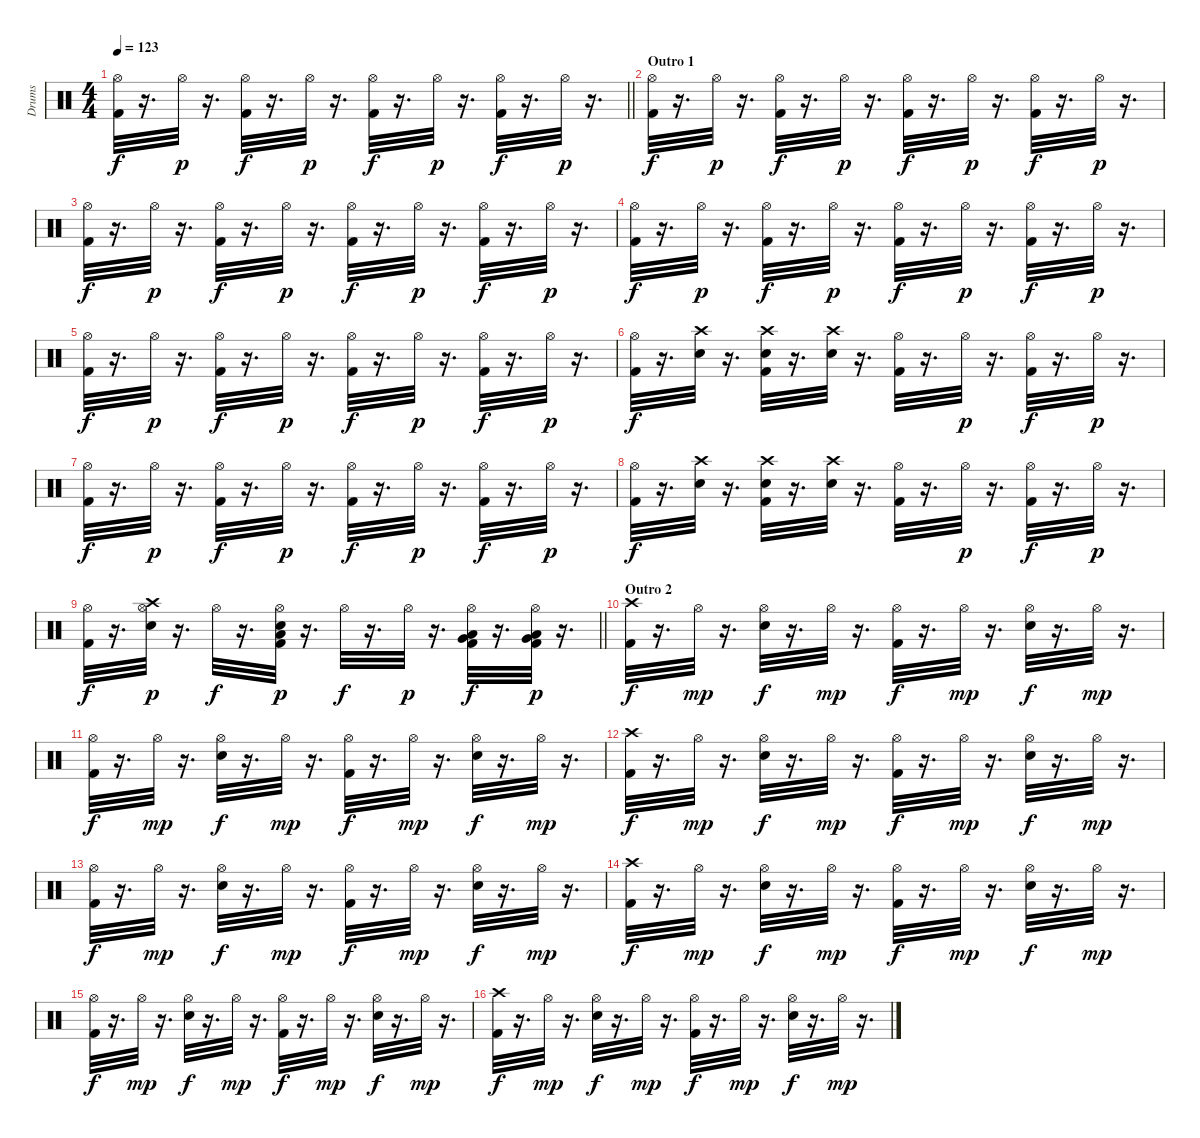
\track ("Drums" "Drums") {instrument percussion}
\staff {score}
\articulation defaults
\ts (4 4)
\tempo 123
\clef neutral
\barLineRight lightlight
\ks c
("Hi-Hat (open)" "Kick (hit) 2").32{dy f} r.16{d} "Hi-Hat (open)".32{dy p} r.16{d} ("Hi-Hat (open)" "Kick (hit) 2").32{dy f} r.16{d} "Hi-Hat (open)".32{dy p} r.16{d} ("Hi-Hat (open)" "Kick (hit) 2").32{dy f} r.16{d} "Hi-Hat (open)".32{dy p} r.16{d} ("Hi-Hat (open)" "Kick (hit) 2").32{dy f} r.16{d} "Hi-Hat (open)".32{dy p} r.16{d} |
\section ("" "Outro 1")
("Hi-Hat (open)" "Kick (hit) 2").32{dy f} r.16{d} "Hi-Hat (open)".32{dy p} r.16{d} ("Hi-Hat (open)" "Kick (hit) 2").32{dy f} r.16{d} "Hi-Hat (open)".32{dy p} r.16{d} ("Hi-Hat (open)" "Kick (hit) 2").32{dy f} r.16{d} "Hi-Hat (open)".32{dy p} r.16{d} ("Hi-Hat (open)" "Kick (hit) 2").32{dy f} r.16{d} "Hi-Hat (open)".32{dy p} r.16{d} |
("Hi-Hat (open)" "Kick (hit) 2").32{dy f} r.16{d} "Hi-Hat (open)".32{dy p} r.16{d} ("Hi-Hat (open)" "Kick (hit) 2").32{dy f} r.16{d} "Hi-Hat (open)".32{dy p} r.16{d} ("Hi-Hat (open)" "Kick (hit) 2").32{dy f} r.16{d} "Hi-Hat (open)".32{dy p} r.16{d} ("Hi-Hat (open)" "Kick (hit) 2").32{dy f} r.16{d} "Hi-Hat (open)".32{dy p} r.16{d} |
("Hi-Hat (open)" "Kick (hit) 2").32{dy f} r.16{d} "Hi-Hat (open)".32{dy p} r.16{d} ("Hi-Hat (open)" "Kick (hit) 2").32{dy f} r.16{d} "Hi-Hat (open)".32{dy p} r.16{d} ("Hi-Hat (open)" "Kick (hit) 2").32{dy f} r.16{d} "Hi-Hat (open)".32{dy p} r.16{d} ("Hi-Hat (open)" "Kick (hit) 2").32{dy f} r.16{d} "Hi-Hat (open)".32{dy p} r.16{d} |
("Hi-Hat (open)" "Kick (hit) 2").32{dy f} r.16{d} "Hi-Hat (open)".32{dy p} r.16{d} ("Hi-Hat (open)" "Kick (hit) 2").32{dy f} r.16{d} "Hi-Hat (open)".32{dy p} r.16{d} ("Hi-Hat (open)" "Kick (hit) 2").32{dy f} r.16{d} "Hi-Hat (open)".32{dy p} r.16{d} ("Hi-Hat (open)" "Kick (hit) 2").32{dy f} r.16{d} "Hi-Hat (open)".32{dy p} r.16{d} |
("Hi-Hat (open)" "Kick (hit) 2").32{dy f} r.16{d} ("Crash high (hit)" "Electric Snare (hit)").32 r.16{d} ("Crash high (hit)" "Electric Snare (hit)" "Kick (hit) 2").32 r.16{d} ("Crash high (hit)" "Electric Snare (hit)").32 r.16{d} ("Hi-Hat (open)" "Kick (hit) 2").32 r.16{d} "Hi-Hat (open)".32{dy p} r.16{d} ("Hi-Hat (open)" "Kick (hit) 2").32{dy f} r.16{d} "Hi-Hat (open)".32{dy p} r.16{d} |
("Hi-Hat (open)" "Kick (hit) 2").32{dy f} r.16{d} "Hi-Hat (open)".32{dy p} r.16{d} ("Hi-Hat (open)" "Kick (hit) 2").32{dy f} r.16{d} "Hi-Hat (open)".32{dy p} r.16{d} ("Hi-Hat (open)" "Kick (hit) 2").32{dy f} r.16{d} "Hi-Hat (open)".32{dy p} r.16{d} ("Hi-Hat (open)" "Kick (hit) 2").32{dy f} r.16{d} "Hi-Hat (open)".32{dy p} r.16{d} |
("Hi-Hat (open)" "Kick (hit) 2").32{dy f} r.16{d} ("Crash high (hit)" "Electric Snare (hit)").32 r.16{d} ("Crash high (hit)" "Electric Snare (hit)" "Kick (hit) 2").32 r.16{d} ("Crash high (hit)" "Electric Snare (hit)").32 r.16{d} ("Hi-Hat (open)" "Kick (hit) 2").32 r.16{d} "Hi-Hat (open)".32{dy p} r.16{d} ("Hi-Hat (open)" "Kick (hit) 2").32{dy f} r.16{d} "Hi-Hat (open)".32{dy p} r.16{d} |
\barLineRight lightlight
("Hi-Hat (open)" "Kick (hit) 2").32{dy f} r.16{d} ("Crash high (hit)" "Electric Snare (hit)" "Hi-Hat (open)").32{dy p} r.16{d} "Hi-Hat (open)".32{dy f} r.16{d} ("Low Floor Tom (hit)" "Electric Snare (hit)" "Hi-Hat (open)" "Kick (hit) 2").32{dy p} r.16{d} "Hi-Hat (open)".32{dy f} r.16{d} "Hi-Hat (open)".32{dy p} r.16{d} ("Very Low Tom (hit)" "Low Floor Tom (hit)" "Hi-Hat (open)" "Kick (hit) 2").32{dy f} r.16{d} ("Very Low Tom (hit)" "Low Floor Tom (hit)" "Hi-Hat (open)" "Kick (hit) 2").32{dy p} r.16{d} |
\section ("" "Outro 2")
("Crash high (hit)" "Kick (hit) 2").32{dy f} r.16{d} "Hi-Hat (open)".32{dy mp} r.16{d} ("Hi-Hat (open)" "Electric Snare (hit)").32{dy f} r.16{d} "Hi-Hat (open)".32{dy mp} r.16{d} ("Kick (hit) 2" "Hi-Hat (open)").32{dy f} r.16{d} "Hi-Hat (open)".32{dy mp} r.16{d} ("Hi-Hat (open)" "Electric Snare (hit)").32{dy f} r.16{d} "Hi-Hat (open)".32{dy mp} r.16{d} |
("Hi-Hat (open)" "Kick (hit) 2").32{dy f} r.16{d} "Hi-Hat (open)".32{dy mp} r.16{d} ("Hi-Hat (open)" "Electric Snare (hit)").32{dy f} r.16{d} "Hi-Hat (open)".32{dy mp} r.16{d} ("Hi-Hat (open)" "Kick (hit) 2").32{dy f} r.16{d} "Hi-Hat (open)".32{dy mp} r.16{d} ("Hi-Hat (open)" "Electric Snare (hit)").32{dy f} r.16{d} "Hi-Hat (open)".32{dy mp} r.16{d} |
("Crash high (hit)" "Kick (hit) 2").32{dy f} r.16{d} "Hi-Hat (open)".32{dy mp} r.16{d} ("Hi-Hat (open)" "Electric Snare (hit)").32{dy f} r.16{d} "Hi-Hat (open)".32{dy mp} r.16{d} ("Kick (hit) 2" "Hi-Hat (open)").32{dy f} r.16{d} "Hi-Hat (open)".32{dy mp} r.16{d} ("Hi-Hat (open)" "Electric Snare (hit)").32{dy f} r.16{d} "Hi-Hat (open)".32{dy mp} r.16{d} |
("Hi-Hat (open)" "Kick (hit) 2").32{dy f} r.16{d} "Hi-Hat (open)".32{dy mp} r.16{d} ("Hi-Hat (open)" "Electric Snare (hit)").32{dy f} r.16{d} "Hi-Hat (open)".32{dy mp} r.16{d} ("Hi-Hat (open)" "Kick (hit) 2").32{dy f} r.16{d} "Hi-Hat (open)".32{dy mp} r.16{d} ("Hi-Hat (open)" "Electric Snare (hit)").32{dy f} r.16{d} "Hi-Hat (open)".32{dy mp} r.16{d} |
("Crash high (hit)" "Kick (hit) 2").32{dy f} r.16{d} "Hi-Hat (open)".32{dy mp} r.16{d} ("Hi-Hat (open)" "Electric Snare (hit)").32{dy f} r.16{d} "Hi-Hat (open)".32{dy mp} r.16{d} ("Kick (hit) 2" "Hi-Hat (open)").32{dy f} r.16{d} "Hi-Hat (open)".32{dy mp} r.16{d} ("Hi-Hat (open)" "Electric Snare (hit)").32{dy f} r.16{d} "Hi-Hat (open)".32{dy mp} r.16{d} |
("Hi-Hat (open)" "Kick (hit) 2").32{dy f} r.16{d} "Hi-Hat (open)".32{dy mp} r.16{d} ("Hi-Hat (open)" "Electric Snare (hit)").32{dy f} r.16{d} "Hi-Hat (open)".32{dy mp} r.16{d} ("Hi-Hat (open)" "Kick (hit) 2").32{dy f} r.16{d} "Hi-Hat (open)".32{dy mp} r.16{d} ("Hi-Hat (open)" "Electric Snare (hit)").32{dy f} r.16{d} "Hi-Hat (open)".32{dy mp} r.16{d} |
("Crash high (hit)" "Kick (hit) 2").32{dy f} r.16{d} "Hi-Hat (open)".32{dy mp} r.16{d} ("Hi-Hat (open)" "Electric Snare (hit)").32{dy f} r.16{d} "Hi-Hat (open)".32{dy mp} r.16{d} ("Kick (hit) 2" "Hi-Hat (open)").32{dy f} r.16{d} "Hi-Hat (open)".32{dy mp} r.16{d} ("Hi-Hat (open)" "Electric Snare (hit)").32{dy f} r.16{d} "Hi-Hat (open)".32{dy mp} r.16{d}
